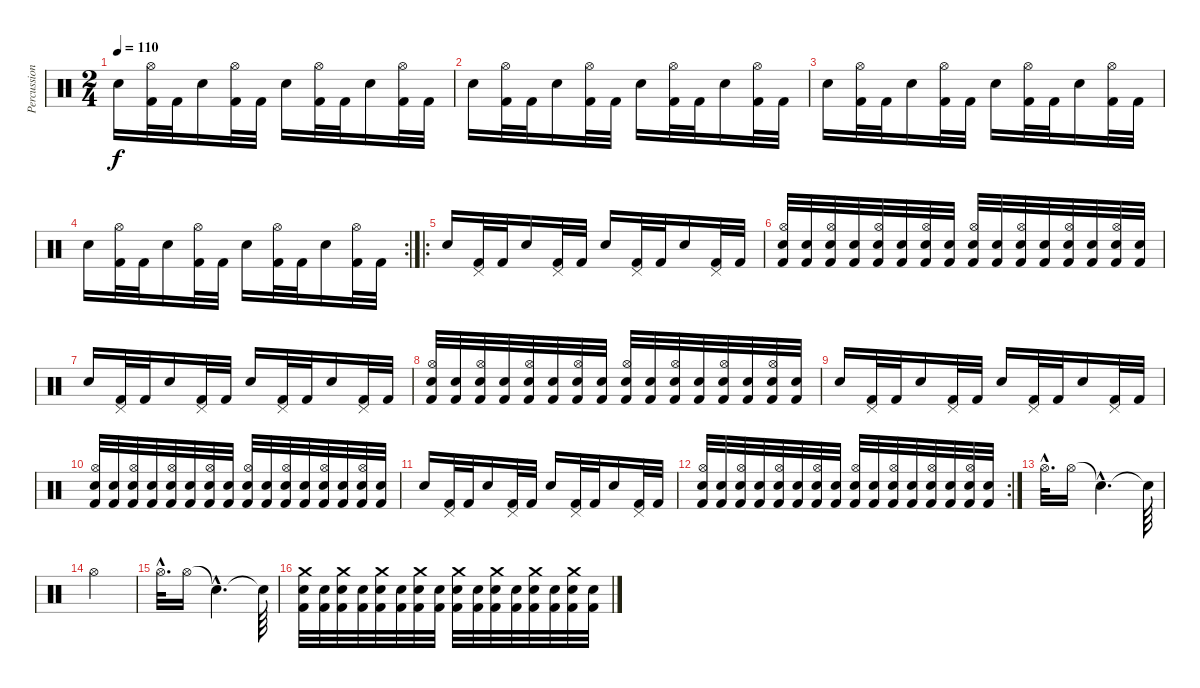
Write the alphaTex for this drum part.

\track ("Percussion" "Percussion") {instrument percussion}
\staff {score}
\articulation defaults
\ts (2 4)
\tempo 110
\clef neutral
\ks c "Snare (hit) 2".16{dy f}
("Hi-Hat (open)" "Kick (hit) 2").32 "Kick (hit) 2".32 "Snare (hit) 2".16 ("Hi-Hat (open)" "Kick (hit) 2").32 "Kick (hit) 2".32 "Snare (hit) 2".16 ("Hi-Hat (open)" "Kick (hit) 2").32 "Kick (hit) 2".32 "Snare (hit) 2".16 ("Hi-Hat (open)" "Kick (hit) 2").32 "Kick (hit) 2".32 |
"Snare (hit) 2".16 ("Hi-Hat (open)" "Kick (hit) 2").32 "Kick (hit) 2".32 "Snare (hit) 2".16 ("Hi-Hat (open)" "Kick (hit) 2").32 "Kick (hit) 2".32 "Snare (hit) 2".16 ("Hi-Hat (open)" "Kick (hit) 2").32 "Kick (hit) 2".32 "Snare (hit) 2".16 ("Hi-Hat (open)" "Kick (hit) 2").32 "Kick (hit) 2".32 |
"Snare (hit) 2".16 ("Hi-Hat (open)" "Kick (hit) 2").32 "Kick (hit) 2".32 "Snare (hit) 2".16 ("Hi-Hat (open)" "Kick (hit) 2").32 "Kick (hit) 2".32 "Snare (hit) 2".16 ("Hi-Hat (open)" "Kick (hit) 2").32 "Kick (hit) 2".32 "Snare (hit) 2".16 ("Hi-Hat (open)" "Kick (hit) 2").32 "Kick (hit) 2".32 |
\rc 2 "Snare (hit) 2".16
("Hi-Hat (open)" "Kick (hit) 2").32 "Kick (hit) 2".32 "Snare (hit) 2".16 ("Hi-Hat (open)" "Kick (hit) 2").32 "Kick (hit) 2".32 "Snare (hit) 2".16 ("Hi-Hat (open)" "Kick (hit) 2").32 "Kick (hit) 2".32 "Snare (hit) 2".16 ("Hi-Hat (open)" "Kick (hit) 2").32 "Kick (hit) 2".32 |
\ro "Snare (hit) 2".16
("Pedal Hi-Hat (hit)" "Kick (hit) 2").32 "Kick (hit) 2".32 "Snare (hit) 2".16 ("Pedal Hi-Hat (hit)" "Kick (hit) 2").32 "Kick (hit) 2".32 "Snare (hit) 2".16 ("Pedal Hi-Hat (hit)" "Kick (hit) 2").32 "Kick (hit) 2".32 "Snare (hit) 2".16 ("Pedal Hi-Hat (hit)" "Kick (hit) 2").32 "Kick (hit) 2".32 |
("Snare (hit) 2" "Hi-Hat (open)" "Kick (hit) 2").32 ("Snare (hit) 2" "Kick (hit) 2").32 ("Snare (hit) 2" "Hi-Hat (open)" "Kick (hit) 2").32 ("Snare (hit) 2" "Kick (hit) 2").32 ("Snare (hit) 2" "Hi-Hat (open)" "Kick (hit) 2").32 ("Snare (hit) 2" "Kick (hit) 2").32 ("Snare (hit) 2" "Hi-Hat (open)" "Kick (hit) 2").32 ("Snare (hit) 2" "Kick (hit) 2").32 ("Snare (hit) 2" "Hi-Hat (open)" "Kick (hit) 2").32 ("Snare (hit) 2" "Kick (hit) 2").32 ("Snare (hit) 2" "Hi-Hat (open)" "Kick (hit) 2").32 ("Snare (hit) 2" "Kick (hit) 2").32 ("Snare (hit) 2" "Hi-Hat (open)" "Kick (hit) 2").32 ("Snare (hit) 2" "Kick (hit) 2").32 ("Snare (hit) 2" "Hi-Hat (open)" "Kick (hit) 2").32 ("Snare (hit) 2" "Kick (hit) 2").32 |
"Snare (hit) 2".16 ("Pedal Hi-Hat (hit)" "Kick (hit) 2").32 "Kick (hit) 2".32 "Snare (hit) 2".16 ("Pedal Hi-Hat (hit)" "Kick (hit) 2").32 "Kick (hit) 2".32 "Snare (hit) 2".16 ("Pedal Hi-Hat (hit)" "Kick (hit) 2").32 "Kick (hit) 2".32 "Snare (hit) 2".16 ("Pedal Hi-Hat (hit)" "Kick (hit) 2").32 "Kick (hit) 2".32 |
("Snare (hit) 2" "Hi-Hat (open)" "Kick (hit) 2").32 ("Snare (hit) 2" "Kick (hit) 2").32 ("Snare (hit) 2" "Hi-Hat (open)" "Kick (hit) 2").32 ("Snare (hit) 2" "Kick (hit) 2").32 ("Snare (hit) 2" "Hi-Hat (open)" "Kick (hit) 2").32 ("Snare (hit) 2" "Kick (hit) 2").32 ("Snare (hit) 2" "Hi-Hat (open)" "Kick (hit) 2").32 ("Snare (hit) 2" "Kick (hit) 2").32 ("Snare (hit) 2" "Hi-Hat (open)" "Kick (hit) 2").32 ("Snare (hit) 2" "Kick (hit) 2").32 ("Snare (hit) 2" "Hi-Hat (open)" "Kick (hit) 2").32 ("Snare (hit) 2" "Kick (hit) 2").32 ("Snare (hit) 2" "Hi-Hat (open)" "Kick (hit) 2").32 ("Snare (hit) 2" "Kick (hit) 2").32 ("Snare (hit) 2" "Hi-Hat (open)" "Kick (hit) 2").32 ("Snare (hit) 2" "Kick (hit) 2").32 |
"Snare (hit) 2".16 ("Pedal Hi-Hat (hit)" "Kick (hit) 2").32 "Kick (hit) 2".32 "Snare (hit) 2".16 ("Pedal Hi-Hat (hit)" "Kick (hit) 2").32 "Kick (hit) 2".32 "Snare (hit) 2".16 ("Pedal Hi-Hat (hit)" "Kick (hit) 2").32 "Kick (hit) 2".32 "Snare (hit) 2".16 ("Pedal Hi-Hat (hit)" "Kick (hit) 2").32 "Kick (hit) 2".32 |
("Snare (hit) 2" "Hi-Hat (open)" "Kick (hit) 2").32 ("Snare (hit) 2" "Kick (hit) 2").32 ("Snare (hit) 2" "Hi-Hat (open)" "Kick (hit) 2").32 ("Snare (hit) 2" "Kick (hit) 2").32 ("Snare (hit) 2" "Hi-Hat (open)" "Kick (hit) 2").32 ("Snare (hit) 2" "Kick (hit) 2").32 ("Snare (hit) 2" "Hi-Hat (open)" "Kick (hit) 2").32 ("Snare (hit) 2" "Kick (hit) 2").32 ("Snare (hit) 2" "Hi-Hat (open)" "Kick (hit) 2").32 ("Snare (hit) 2" "Kick (hit) 2").32 ("Snare (hit) 2" "Hi-Hat (open)" "Kick (hit) 2").32 ("Snare (hit) 2" "Kick (hit) 2").32 ("Snare (hit) 2" "Hi-Hat (open)" "Kick (hit) 2").32 ("Snare (hit) 2" "Kick (hit) 2").32 ("Snare (hit) 2" "Hi-Hat (open)" "Kick (hit) 2").32 ("Snare (hit) 2" "Kick (hit) 2").32 |
"Snare (hit) 2".16 ("Pedal Hi-Hat (hit)" "Kick (hit) 2").32 "Kick (hit) 2".32 "Snare (hit) 2".16 ("Pedal Hi-Hat (hit)" "Kick (hit) 2").32 "Kick (hit) 2".32 "Snare (hit) 2".16 ("Pedal Hi-Hat (hit)" "Kick (hit) 2").32 "Kick (hit) 2".32 "Snare (hit) 2".16 ("Pedal Hi-Hat (hit)" "Kick (hit) 2").32 "Kick (hit) 2".32 |
\rc 2
("Snare (hit) 2" "Hi-Hat (open)" "Kick (hit) 2").32 ("Snare (hit) 2" "Kick (hit) 2").32 ("Snare (hit) 2" "Hi-Hat (open)" "Kick (hit) 2").32 ("Snare (hit) 2" "Kick (hit) 2").32 ("Snare (hit) 2" "Hi-Hat (open)" "Kick (hit) 2").32 ("Snare (hit) 2" "Kick (hit) 2").32 ("Snare (hit) 2" "Hi-Hat (open)" "Kick (hit) 2").32 ("Snare (hit) 2" "Kick (hit) 2").32 ("Snare (hit) 2" "Hi-Hat (open)" "Kick (hit) 2").32 ("Snare (hit) 2" "Kick (hit) 2").32 ("Snare (hit) 2" "Hi-Hat (open)" "Kick (hit) 2").32 ("Snare (hit) 2" "Kick (hit) 2").32 ("Snare (hit) 2" "Hi-Hat (open)" "Kick (hit) 2").32 ("Snare (hit) 2" "Kick (hit) 2").32 ("Snare (hit) 2" "Hi-Hat (open)" "Kick (hit) 2").32 ("Snare (hit) 2" "Kick (hit) 2").32 |
"Hi-Hat (open)"{hac}.32{d} "Hi-Hat (open)".16 "Snare (hit)"{hac t}.4{d} "Snare (hit)"{t}.64 |
"Hi-Hat (open)".2 |
"Hi-Hat (open)"{hac}.32{d} "Hi-Hat (open)".16 "Snare (hit)"{hac t}.4{d} "Snare (hit)"{t}.64 |
("Snare (hit) 2" "Crash medium (hit)" "Kick (hit) 2").32 ("Snare (hit) 2" "Kick (hit) 2").32 ("Snare (hit) 2" "Crash medium (hit)" "Kick (hit) 2").32 ("Snare (hit) 2" "Kick (hit) 2").32 ("Snare (hit) 2" "Crash medium (hit)" "Kick (hit) 2").32 ("Snare (hit) 2" "Kick (hit) 2").32 ("Snare (hit) 2" "Crash medium (hit)" "Kick (hit) 2").32 ("Snare (hit) 2" "Kick (hit) 2").32 ("Snare (hit) 2" "Crash medium (hit)" "Kick (hit) 2").32 ("Snare (hit) 2" "Kick (hit) 2").32 ("Snare (hit) 2" "Crash medium (hit)" "Kick (hit) 2").32 ("Snare (hit) 2" "Kick (hit) 2").32 ("Snare (hit) 2" "Crash medium (hit)" "Kick (hit) 2").32 ("Snare (hit) 2" "Kick (hit) 2").32 ("Snare (hit) 2" "Crash medium (hit)" "Kick (hit) 2").32 ("Snare (hit) 2" "Kick (hit) 2").32
